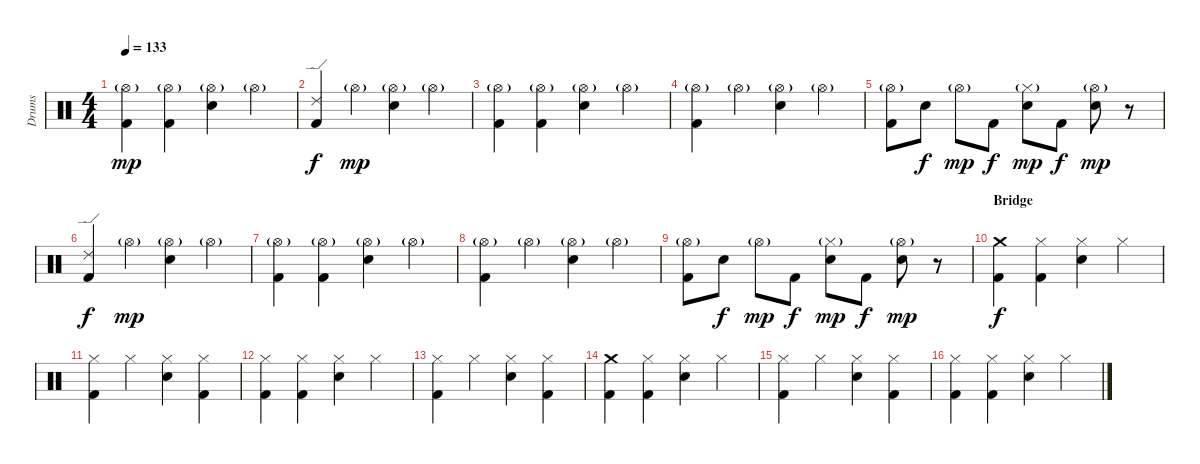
\track ("Drums" "Drums") {instrument percussion}
\staff {score}
\articulation defaults
\ts (4 4)
\tempo 133
\clef neutral
\ks c
("Hi-Hat (open)"{g} "Kick (hit) 2").4{dy mp} ("Hi-Hat (open)"{g} "Kick (hit) 2").4 ("Hi-Hat (open)"{g} "Electric Snare (hit)").4 "Hi-Hat (open)"{g}.4 |
("Ride (edge) 2" "Kick (hit) 2").4{dy f} "Hi-Hat (open)"{g}.4{dy mp} ("Hi-Hat (open)"{g} "Electric Snare (hit)").4 "Hi-Hat (open)"{g}.4 |
("Hi-Hat (open)"{g} "Kick (hit) 2").4 ("Hi-Hat (open)"{g} "Kick (hit) 2").4 ("Hi-Hat (open)"{g} "Electric Snare (hit)").4 "Hi-Hat (open)"{g}.4 |
("Hi-Hat (open)"{g} "Kick (hit) 2").4 "Hi-Hat (open)"{g}.4 ("Hi-Hat (open)"{g} "Electric Snare (hit)").4 "Hi-Hat (open)"{g}.4 |
("Hi-Hat (open)"{g} "Kick (hit) 2").8 "Electric Snare (hit)".8{dy f} "Hi-Hat (open)"{g}.8{dy mp} "Kick (hit) 2".8{dy f} ("Hi-Hat (closed)"{g} "Electric Snare (hit)").8{dy mp} "Kick (hit) 2".8{dy f} ("Hi-Hat (open)"{g} "Electric Snare (hit)").8{dy mp} r.8 |
("Ride (edge) 2" "Kick (hit) 2").4{dy f} "Hi-Hat (open)"{g}.4{dy mp} ("Hi-Hat (open)"{g} "Electric Snare (hit)").4 "Hi-Hat (open)"{g}.4 |
("Hi-Hat (open)"{g} "Kick (hit) 2").4 ("Hi-Hat (open)"{g} "Kick (hit) 2").4 ("Hi-Hat (open)"{g} "Electric Snare (hit)").4 "Hi-Hat (open)"{g}.4 |
("Hi-Hat (open)"{g} "Kick (hit) 2").4 "Hi-Hat (open)"{g}.4 ("Hi-Hat (open)"{g} "Electric Snare (hit)").4 "Hi-Hat (open)"{g}.4 |
("Hi-Hat (open)"{g} "Kick (hit) 2").8 "Electric Snare (hit)".8{dy f} "Hi-Hat (open)"{g}.8{dy mp} "Kick (hit) 2".8{dy f} ("Hi-Hat (closed)"{g} "Electric Snare (hit)").8{dy mp} "Kick (hit) 2".8{dy f} ("Hi-Hat (open)"{g} "Electric Snare (hit)").8{dy mp} r.8 |
\section ("" "Bridge")
("Crash medium (hit)" "Kick (hit) 2").4{dy f} ("Hi-Hat (closed)" "Kick (hit) 2").4 ("Hi-Hat (closed)" "Electric Snare (hit)").4 "Hi-Hat (closed)".4 |
("Hi-Hat (closed)" "Kick (hit) 2").4 "Hi-Hat (closed)".4 ("Hi-Hat (closed)" "Electric Snare (hit)").4 ("Hi-Hat (closed)" "Kick (hit) 2").4 |
("Hi-Hat (closed)" "Kick (hit) 2").4 ("Hi-Hat (closed)" "Kick (hit) 2").4 ("Hi-Hat (closed)" "Electric Snare (hit)").4 "Hi-Hat (closed)".4 |
("Hi-Hat (closed)" "Kick (hit) 2").4 "Hi-Hat (closed)".4 ("Hi-Hat (closed)" "Electric Snare (hit)").4 ("Hi-Hat (closed)" "Kick (hit) 2").4 |
("Crash medium (hit)" "Kick (hit) 2").4 ("Hi-Hat (closed)" "Kick (hit) 2").4 ("Hi-Hat (closed)" "Electric Snare (hit)").4 "Hi-Hat (closed)".4 |
("Hi-Hat (closed)" "Kick (hit) 2").4 "Hi-Hat (closed)".4 ("Hi-Hat (closed)" "Electric Snare (hit)").4 ("Hi-Hat (closed)" "Kick (hit) 2").4 |
("Hi-Hat (closed)" "Kick (hit) 2").4 ("Hi-Hat (closed)" "Kick (hit) 2").4 ("Hi-Hat (closed)" "Electric Snare (hit)").4 "Hi-Hat (closed)".4
